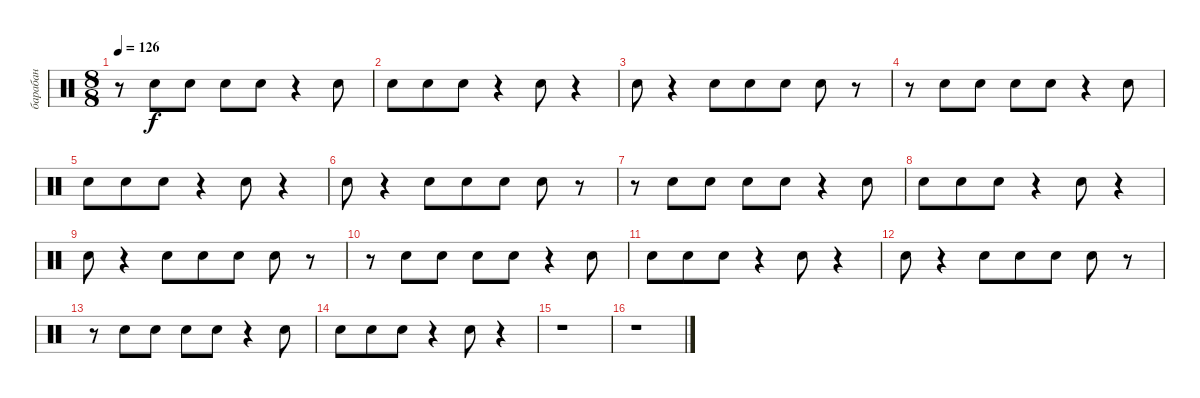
\track ("барабан" "барабан") {instrument percussion}
\staff {score}
\articulation defaults
\ts (8 8)
\tempo 126
\clef neutral
\ks c
r.8{dy f} "Electric Snare (hit)".8 "Electric Snare (hit)".8 "Electric Snare (hit)".8 "Electric Snare (hit)".8 r.4 "Electric Snare (hit)".8 |
"Electric Snare (hit)".8 "Electric Snare (hit)".8 "Electric Snare (hit)".8 r.4 "Electric Snare (hit)".8 r.4 |
"Electric Snare (hit)".8 r.4 "Electric Snare (hit)".8 "Electric Snare (hit)".8 "Electric Snare (hit)".8 "Electric Snare (hit)".8 r.8 |
r.8 "Electric Snare (hit)".8 "Electric Snare (hit)".8 "Electric Snare (hit)".8 "Electric Snare (hit)".8 r.4 "Electric Snare (hit)".8 |
"Electric Snare (hit)".8 "Electric Snare (hit)".8 "Electric Snare (hit)".8 r.4 "Electric Snare (hit)".8 r.4 |
"Electric Snare (hit)".8 r.4 "Electric Snare (hit)".8 "Electric Snare (hit)".8 "Electric Snare (hit)".8 "Electric Snare (hit)".8 r.8 |
r.8 "Electric Snare (hit)".8 "Electric Snare (hit)".8 "Electric Snare (hit)".8 "Electric Snare (hit)".8 r.4 "Electric Snare (hit)".8 |
"Electric Snare (hit)".8 "Electric Snare (hit)".8 "Electric Snare (hit)".8 r.4 "Electric Snare (hit)".8 r.4 |
"Electric Snare (hit)".8 r.4 "Electric Snare (hit)".8 "Electric Snare (hit)".8 "Electric Snare (hit)".8 "Electric Snare (hit)".8 r.8 |
r.8 "Electric Snare (hit)".8 "Electric Snare (hit)".8 "Electric Snare (hit)".8 "Electric Snare (hit)".8 r.4 "Electric Snare (hit)".8 |
"Electric Snare (hit)".8 "Electric Snare (hit)".8 "Electric Snare (hit)".8 r.4 "Electric Snare (hit)".8 r.4 |
"Electric Snare (hit)".8 r.4 "Electric Snare (hit)".8 "Electric Snare (hit)".8 "Electric Snare (hit)".8 "Electric Snare (hit)".8 r.8 |
r.8 "Electric Snare (hit)".8 "Electric Snare (hit)".8 "Electric Snare (hit)".8 "Electric Snare (hit)".8 r.4 "Electric Snare (hit)".8 |
"Electric Snare (hit)".8 "Electric Snare (hit)".8 "Electric Snare (hit)".8 r.4 "Electric Snare (hit)".8 r.4 |
r.1 |
r.1
